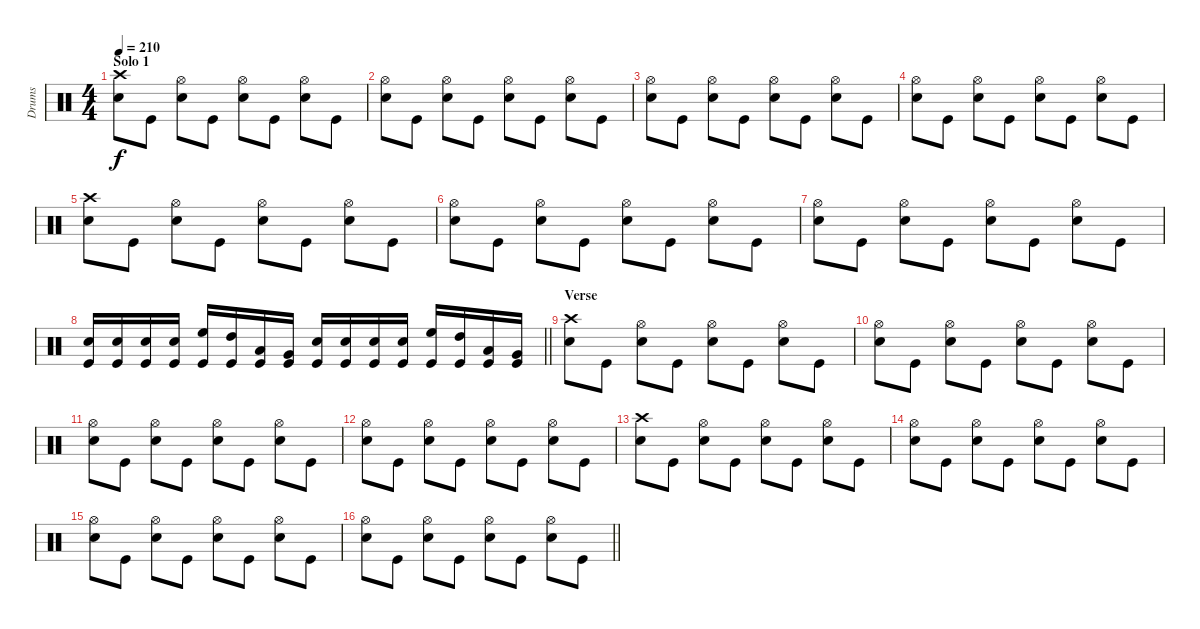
\track ("Drums" "Drums") {instrument percussion}
\staff {score}
\articulation defaults
\ts (4 4)
\section ("" "Solo 1")
\tempo 210
\clef neutral
\ks c
("Crash high (hit)" "Snare (hit) 2").8{dy f} "Kick (hit)".8 ("Hi-Hat (open)" "Snare (hit) 2").8 "Kick (hit)".8 ("Hi-Hat (open)" "Snare (hit) 2").8 "Kick (hit)".8 ("Hi-Hat (open)" "Snare (hit) 2").8 "Kick (hit)".8 |
("Hi-Hat (open)" "Snare (hit) 2").8 "Kick (hit)".8 ("Hi-Hat (open)" "Snare (hit) 2").8 "Kick (hit)".8 ("Hi-Hat (open)" "Snare (hit) 2").8 "Kick (hit)".8 ("Hi-Hat (open)" "Snare (hit) 2").8 "Kick (hit)".8 |
("Hi-Hat (open)" "Snare (hit) 2").8 "Kick (hit)".8 ("Hi-Hat (open)" "Snare (hit) 2").8 "Kick (hit)".8 ("Hi-Hat (open)" "Snare (hit) 2").8 "Kick (hit)".8 ("Hi-Hat (open)" "Snare (hit) 2").8 "Kick (hit)".8 |
("Hi-Hat (open)" "Snare (hit) 2").8 "Kick (hit)".8 ("Hi-Hat (open)" "Snare (hit) 2").8 "Kick (hit)".8 ("Hi-Hat (open)" "Snare (hit) 2").8 "Kick (hit)".8 ("Hi-Hat (open)" "Snare (hit) 2").8 "Kick (hit)".8 |
("Crash high (hit)" "Snare (hit) 2").8 "Kick (hit)".8 ("Hi-Hat (open)" "Snare (hit) 2").8 "Kick (hit)".8 ("Hi-Hat (open)" "Snare (hit) 2").8 "Kick (hit)".8 ("Hi-Hat (open)" "Snare (hit) 2").8 "Kick (hit)".8 |
("Hi-Hat (open)" "Snare (hit) 2").8 "Kick (hit)".8 ("Hi-Hat (open)" "Snare (hit) 2").8 "Kick (hit)".8 ("Hi-Hat (open)" "Snare (hit) 2").8 "Kick (hit)".8 ("Hi-Hat (open)" "Snare (hit) 2").8 "Kick (hit)".8 |
("Hi-Hat (open)" "Snare (hit) 2").8 "Kick (hit)".8 ("Hi-Hat (open)" "Snare (hit) 2").8 "Kick (hit)".8 ("Hi-Hat (open)" "Snare (hit) 2").8 "Kick (hit)".8 ("Hi-Hat (open)" "Snare (hit) 2").8 "Kick (hit)".8 |
\barLineRight lightlight
("Snare (hit) 2" "Kick (hit)").16 ("Snare (hit) 2" "Kick (hit)").16 ("Snare (hit) 2" "Kick (hit)").16 ("Snare (hit) 2" "Kick (hit)").16 ("High Floor Tom (hit)" "Kick (hit)").16 ("High Tom (hit)" "Kick (hit)").16 ("Low Tom (hit)" "Kick (hit)").16 ("Very Low Tom (hit)" "Kick (hit)").16 ("Snare (hit) 2" "Kick (hit)").16 ("Snare (hit) 2" "Kick (hit)").16 ("Snare (hit) 2" "Kick (hit)").16 ("Snare (hit) 2" "Kick (hit)").16 ("High Floor Tom (hit)" "Kick (hit)").16 ("High Tom (hit)" "Kick (hit)").16 ("Low Tom (hit)" "Kick (hit)").16 ("Very Low Tom (hit)" "Kick (hit)").16 |
\section ("" "Verse")
("Crash high (hit)" "Snare (hit) 2").8 "Kick (hit)".8 ("Hi-Hat (open)" "Snare (hit) 2").8 "Kick (hit)".8 ("Hi-Hat (open)" "Snare (hit) 2").8 "Kick (hit)".8 ("Hi-Hat (open)" "Snare (hit) 2").8 "Kick (hit)".8 |
("Hi-Hat (open)" "Snare (hit) 2").8 "Kick (hit)".8 ("Hi-Hat (open)" "Snare (hit) 2").8 "Kick (hit)".8 ("Hi-Hat (open)" "Snare (hit) 2").8 "Kick (hit)".8 ("Hi-Hat (open)" "Snare (hit) 2").8 "Kick (hit)".8 |
("Hi-Hat (open)" "Snare (hit) 2").8 "Kick (hit)".8 ("Hi-Hat (open)" "Snare (hit) 2").8 "Kick (hit)".8 ("Hi-Hat (open)" "Snare (hit) 2").8 "Kick (hit)".8 ("Hi-Hat (open)" "Snare (hit) 2").8 "Kick (hit)".8 |
("Hi-Hat (open)" "Snare (hit) 2").8 "Kick (hit)".8 ("Hi-Hat (open)" "Snare (hit) 2").8 "Kick (hit)".8 ("Hi-Hat (open)" "Snare (hit) 2").8 "Kick (hit)".8 ("Hi-Hat (open)" "Snare (hit) 2").8 "Kick (hit)".8 |
("Crash high (hit)" "Snare (hit) 2").8 "Kick (hit)".8 ("Hi-Hat (open)" "Snare (hit) 2").8 "Kick (hit)".8 ("Hi-Hat (open)" "Snare (hit) 2").8 "Kick (hit)".8 ("Hi-Hat (open)" "Snare (hit) 2").8 "Kick (hit)".8 |
("Hi-Hat (open)" "Snare (hit) 2").8 "Kick (hit)".8 ("Hi-Hat (open)" "Snare (hit) 2").8 "Kick (hit)".8 ("Hi-Hat (open)" "Snare (hit) 2").8 "Kick (hit)".8 ("Hi-Hat (open)" "Snare (hit) 2").8 "Kick (hit)".8 |
("Hi-Hat (open)" "Snare (hit) 2").8 "Kick (hit)".8 ("Hi-Hat (open)" "Snare (hit) 2").8 "Kick (hit)".8 ("Hi-Hat (open)" "Snare (hit) 2").8 "Kick (hit)".8 ("Hi-Hat (open)" "Snare (hit) 2").8 "Kick (hit)".8 |
\barLineRight lightlight
("Hi-Hat (open)" "Snare (hit) 2").8 "Kick (hit)".8 ("Hi-Hat (open)" "Snare (hit) 2").8 "Kick (hit)".8 ("Hi-Hat (open)" "Snare (hit) 2").8 "Kick (hit)".8 ("Hi-Hat (open)" "Snare (hit) 2").8 "Kick (hit)".8
